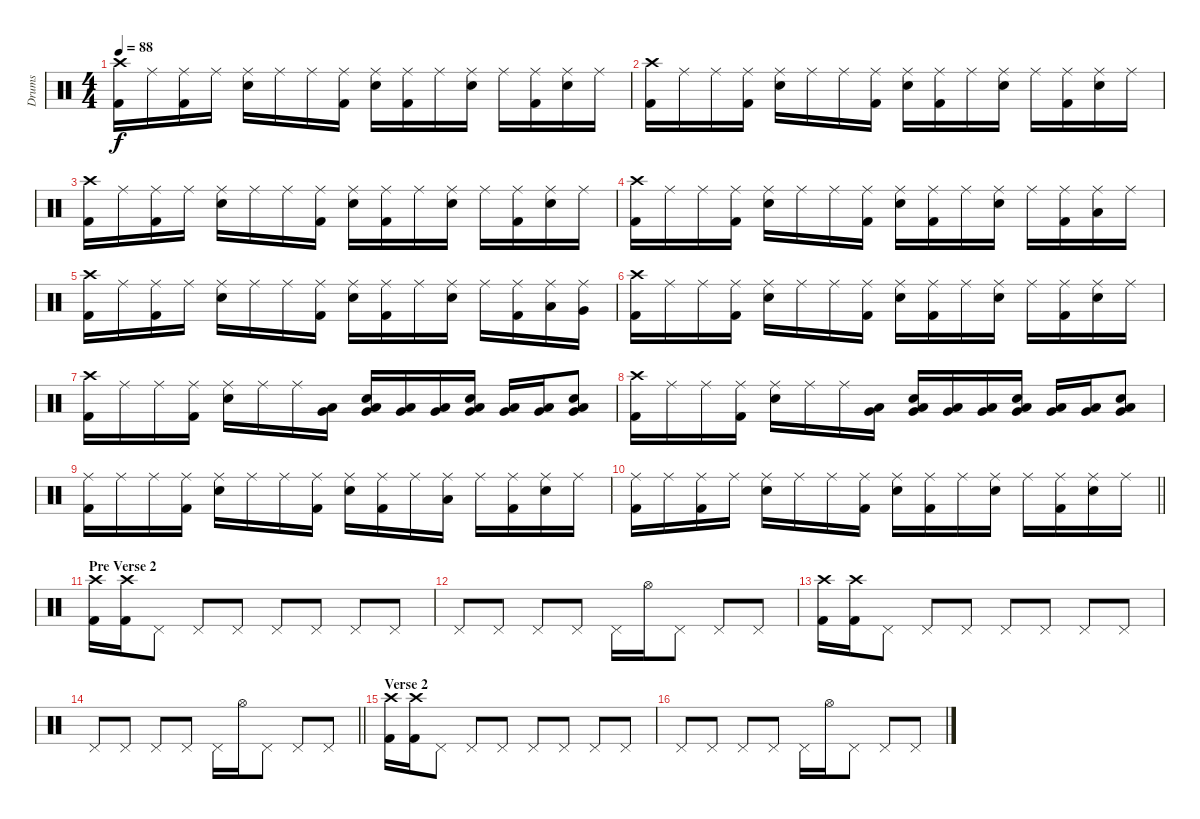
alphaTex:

\track ("Drums" "Drums") {instrument percussion}
\staff {score}
\articulation defaults
\ts (4 4)
\tempo 88
\clef neutral
\ks c
("Crash high (hit)" "Kick (hit) 2").16{dy f} "Ride (middle)".16 ("Ride (middle)" "Kick (hit) 2").16 "Ride (middle)".16 ("Ride (middle)" "Snare (hit) 2").16 "Ride (middle)".16 "Ride (middle)".16 ("Ride (middle)" "Kick (hit) 2").16 ("Ride (middle)" "Snare (hit) 2").16 ("Ride (middle)" "Kick (hit) 2").16 "Ride (middle)".16 ("Ride (middle)" "Snare (hit) 2").16 "Ride (middle)".16 ("Ride (middle)" "Kick (hit) 2").16 ("Ride (middle)" "Snare (hit) 2").16 "Ride (middle)".16 |
("Crash high (hit)" "Kick (hit) 2").16 "Ride (middle)".16 "Ride (middle)".16 ("Ride (middle)" "Kick (hit) 2").16 ("Ride (middle)" "Snare (hit) 2").16 "Ride (middle)".16 "Ride (middle)".16 ("Ride (middle)" "Kick (hit) 2").16 ("Ride (middle)" "Snare (hit) 2").16 ("Ride (middle)" "Kick (hit) 2").16 "Ride (middle)".16 ("Ride (middle)" "Snare (hit) 2").16 "Ride (middle)".16 ("Ride (middle)" "Kick (hit) 2").16 ("Ride (middle)" "Snare (hit) 2").16 "Ride (middle)".16 |
("Crash high (hit)" "Kick (hit) 2").16 "Ride (middle)".16 ("Ride (middle)" "Kick (hit) 2").16 "Ride (middle)".16 ("Ride (middle)" "Snare (hit) 2").16 "Ride (middle)".16 "Ride (middle)".16 ("Ride (middle)" "Kick (hit) 2").16 ("Ride (middle)" "Snare (hit) 2").16 ("Ride (middle)" "Kick (hit) 2").16 "Ride (middle)".16 ("Ride (middle)" "Snare (hit) 2").16 "Ride (middle)".16 ("Ride (middle)" "Kick (hit) 2").16 ("Ride (middle)" "Snare (hit) 2").16 "Ride (middle)".16 |
("Crash high (hit)" "Kick (hit) 2").16 "Ride (middle)".16 "Ride (middle)".16 ("Ride (middle)" "Kick (hit) 2").16 ("Ride (middle)" "Snare (hit) 2").16 "Ride (middle)".16 "Ride (middle)".16 ("Ride (middle)" "Kick (hit) 2").16 ("Ride (middle)" "Snare (hit) 2").16 ("Ride (middle)" "Kick (hit) 2").16 "Ride (middle)".16 ("Ride (middle)" "Snare (hit) 2").16 "Ride (middle)".16 ("Ride (middle)" "Kick (hit) 2").16 ("Ride (middle)" "Low Tom (hit)").16 "Ride (middle)".16 |
("Crash high (hit)" "Kick (hit) 2").16 "Ride (middle)".16 ("Ride (middle)" "Kick (hit) 2").16 "Ride (middle)".16 ("Ride (middle)" "Snare (hit) 2").16 "Ride (middle)".16 "Ride (middle)".16 ("Ride (middle)" "Kick (hit) 2").16 ("Ride (middle)" "Snare (hit) 2").16 ("Ride (middle)" "Kick (hit) 2").16 "Ride (middle)".16 ("Ride (middle)" "Snare (hit) 2").16 "Ride (middle)".16 ("Ride (middle)" "Kick (hit) 2").16 ("Ride (middle)" "Low Tom (hit)").16 ("Ride (middle)" "Very Low Tom (hit)").16 |
("Crash high (hit)" "Kick (hit) 2").16 "Ride (middle)".16 "Ride (middle)".16 ("Ride (middle)" "Kick (hit) 2").16 ("Ride (middle)" "Snare (hit) 2").16 "Ride (middle)".16 "Ride (middle)".16 ("Ride (middle)" "Kick (hit) 2").16 ("Ride (middle)" "Snare (hit) 2").16 ("Ride (middle)" "Kick (hit) 2").16 "Ride (middle)".16 ("Ride (middle)" "Snare (hit) 2").16 "Ride (middle)".16 ("Ride (middle)" "Kick (hit) 2").16 ("Ride (middle)" "Snare (hit) 2").16 "Ride (middle)".16 |
("Crash high (hit)" "Kick (hit) 2").16 "Ride (middle)".16 "Ride (middle)".16 ("Ride (middle)" "Kick (hit) 2").16 ("Ride (middle)" "Snare (hit) 2").16 "Ride (middle)".16 "Ride (middle)".16 ("Low Tom (hit)" "Very Low Tom (hit)").16 ("Snare (hit) 2" "Low Tom (hit)" "Very Low Tom (hit)").16 ("Low Tom (hit)" "Very Low Tom (hit)").16 ("Low Tom (hit)" "Very Low Tom (hit)").16 ("Snare (hit) 2" "Low Tom (hit)" "Very Low Tom (hit)").16 ("Low Tom (hit)" "Very Low Tom (hit)").16 ("Low Tom (hit)" "Very Low Tom (hit)").16 ("Snare (hit) 2" "Low Tom (hit)" "Very Low Tom (hit)").8 |
("Crash high (hit)" "Kick (hit) 2").16 "Ride (middle)".16 "Ride (middle)".16 ("Ride (middle)" "Kick (hit) 2").16 ("Ride (middle)" "Snare (hit) 2").16 "Ride (middle)".16 "Ride (middle)".16 ("Low Tom (hit)" "Very Low Tom (hit)").16 ("Snare (hit) 2" "Low Tom (hit)" "Very Low Tom (hit)").16 ("Low Tom (hit)" "Very Low Tom (hit)").16 ("Low Tom (hit)" "Very Low Tom (hit)").16 ("Snare (hit) 2" "Low Tom (hit)" "Very Low Tom (hit)").16 ("Low Tom (hit)" "Very Low Tom (hit)").16 ("Low Tom (hit)" "Very Low Tom (hit)").16 ("Snare (hit) 2" "Low Tom (hit)" "Very Low Tom (hit)").8 |
("Ride (middle)" "Kick (hit) 2").16 "Ride (middle)".16 "Ride (middle)".16 ("Ride (middle)" "Kick (hit) 2").16 ("Ride (middle)" "Snare (hit) 2").16 "Ride (middle)".16 "Ride (middle)".16 ("Ride (middle)" "Kick (hit) 2").16 ("Ride (middle)" "Snare (hit) 2").16 ("Ride (middle)" "Kick (hit) 2").16 "Ride (middle)".16 ("Ride (middle)" "Low Tom (hit)").16 "Ride (middle)".16 ("Ride (middle)" "Kick (hit) 2").16 ("Ride (middle)" "Snare (hit) 2").16 "Ride (middle)".16 |
\barLineRight lightlight
("Ride (middle)" "Kick (hit) 2").16 "Ride (middle)".16 ("Ride (middle)" "Kick (hit) 2").16 "Ride (middle)".16 ("Ride (middle)" "Snare (hit) 2").16 "Ride (middle)".16 "Ride (middle)".16 ("Ride (middle)" "Kick (hit) 2").16 ("Ride (middle)" "Snare (hit) 2").16 ("Ride (middle)" "Kick (hit) 2").16 "Ride (middle)".16 ("Ride (middle)" "Snare (hit) 2").16 "Ride (middle)".16 ("Ride (middle)" "Kick (hit) 2").16 ("Ride (middle)" "Snare (hit) 2").16 "Ride (middle)".16 |
\section ("" "Pre Verse 2")
("Crash high (hit)" "Kick (hit) 2").16 ("Crash high (hit)" "Kick (hit) 2").16 "Pedal Hi-Hat (hit)".8 "Pedal Hi-Hat (hit)".8 "Pedal Hi-Hat (hit)".8 "Pedal Hi-Hat (hit)".8 "Pedal Hi-Hat (hit)".8 "Pedal Hi-Hat (hit)".8 "Pedal Hi-Hat (hit)".8 |
"Pedal Hi-Hat (hit)".8 "Pedal Hi-Hat (hit)".8 "Pedal Hi-Hat (hit)".8 "Pedal Hi-Hat (hit)".8 "Pedal Hi-Hat (hit)".16 "Hi-Hat (open)".16 "Pedal Hi-Hat (hit)".8 "Pedal Hi-Hat (hit)".8 "Pedal Hi-Hat (hit)".8 |
("Crash high (hit)" "Kick (hit) 2").16 ("Crash high (hit)" "Kick (hit) 2").16 "Pedal Hi-Hat (hit)".8 "Pedal Hi-Hat (hit)".8 "Pedal Hi-Hat (hit)".8 "Pedal Hi-Hat (hit)".8 "Pedal Hi-Hat (hit)".8 "Pedal Hi-Hat (hit)".8 "Pedal Hi-Hat (hit)".8 |
\barLineRight lightlight "Pedal Hi-Hat (hit)".8 "Pedal Hi-Hat (hit)".8 "Pedal Hi-Hat (hit)".8 "Pedal Hi-Hat (hit)".8 "Pedal Hi-Hat (hit)".16 "Hi-Hat (open)".16 "Pedal Hi-Hat (hit)".8 "Pedal Hi-Hat (hit)".8 "Pedal Hi-Hat (hit)".8
|
\section ("" "Verse 2")
("Crash high (hit)" "Kick (hit) 2").16 ("Crash high (hit)" "Kick (hit) 2").16 "Pedal Hi-Hat (hit)".8 "Pedal Hi-Hat (hit)".8 "Pedal Hi-Hat (hit)".8 "Pedal Hi-Hat (hit)".8 "Pedal Hi-Hat (hit)".8 "Pedal Hi-Hat (hit)".8 "Pedal Hi-Hat (hit)".8 |
"Pedal Hi-Hat (hit)".8 "Pedal Hi-Hat (hit)".8 "Pedal Hi-Hat (hit)".8 "Pedal Hi-Hat (hit)".8 "Pedal Hi-Hat (hit)".16 "Hi-Hat (open)".16 "Pedal Hi-Hat (hit)".8 "Pedal Hi-Hat (hit)".8 "Pedal Hi-Hat (hit)".8
